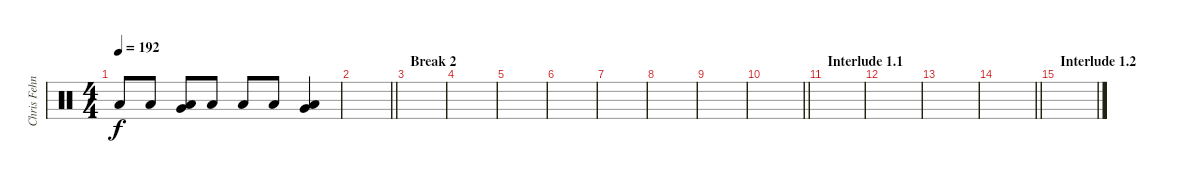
\track ("Chris Fehn" "Chris Fehn") {instrument percussion}
\staff {score}
\articulation defaults
\ts (4 4)
\tempo 192
\clef neutral
\ks c "Low Floor Tom (hit)".8{dy f} "Low Floor Tom (hit)".8
("Very Low Tom (hit)" "Low Floor Tom (hit)").8 "Low Floor Tom (hit)".8 "Low Floor Tom (hit)".8 "Low Floor Tom (hit)".8 ("Very Low Tom (hit)" "Low Floor Tom (hit)").4 |
\barLineRight lightlight
|
\section ("" "Break 2")
|
|
|
|
|
|
|
\barLineRight lightlight
|
\section ("" "Interlude 1.1")
|
|
|
\barLineRight lightlight
|
\section ("" "Interlude 1.2")
